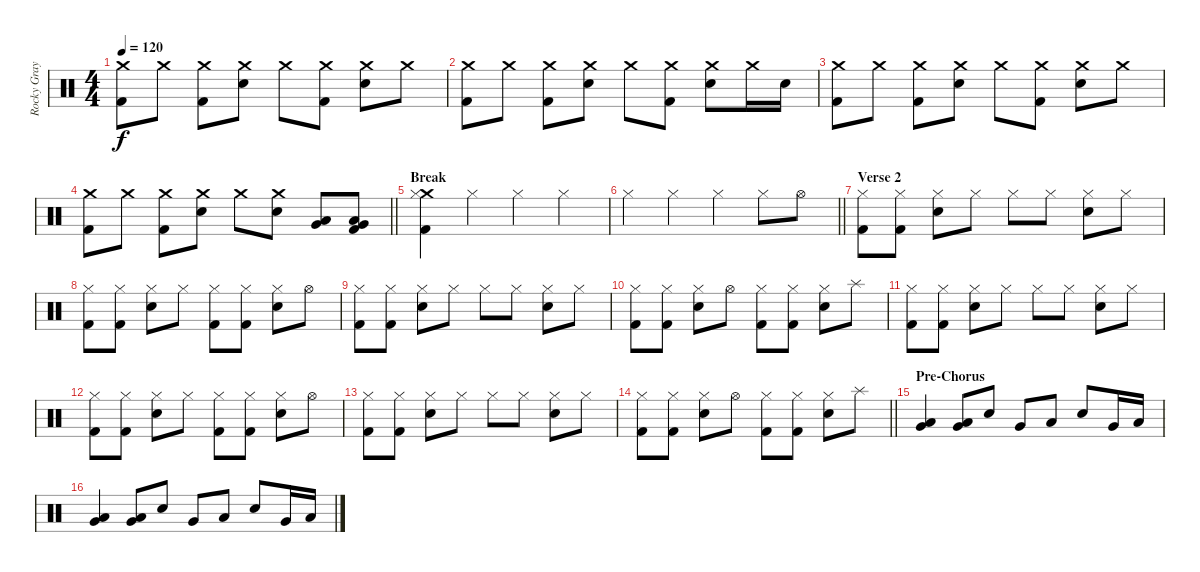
\track ("Rocky Gray" "Rocky Gray") {instrument percussion}
\staff {score}
\articulation defaults
\ts (4 4)
\tempo 120
\clef neutral
\ks c
("Crash medium (hit)" "Kick (hit) 2").8{dy f} "Crash medium (hit)".8 ("Crash medium (hit)" "Kick (hit) 2").8 ("Crash medium (hit)" "Electric Snare (hit)").8 "Crash medium (hit)".8 ("Crash medium (hit)" "Kick (hit) 2").8 ("Crash medium (hit)" "Electric Snare (hit)").8 "Crash medium (hit)".8 |
("Crash medium (hit)" "Kick (hit) 2").8 "Crash medium (hit)".8 ("Crash medium (hit)" "Kick (hit) 2").8 ("Crash medium (hit)" "Electric Snare (hit)").8 "Crash medium (hit)".8 ("Crash medium (hit)" "Kick (hit) 2").8 ("Crash medium (hit)" "Electric Snare (hit)").8 "Crash medium (hit)".16 "Electric Snare (hit)".16 |
("Crash medium (hit)" "Kick (hit) 2").8 "Crash medium (hit)".8 ("Crash medium (hit)" "Kick (hit) 2").8 ("Crash medium (hit)" "Electric Snare (hit)").8 "Crash medium (hit)".8 ("Crash medium (hit)" "Kick (hit) 2").8 ("Crash medium (hit)" "Electric Snare (hit)").8 "Crash medium (hit)".8 |
\barLineRight lightlight
("Crash medium (hit)" "Kick (hit) 2").8 "Crash medium (hit)".8 ("Crash medium (hit)" "Kick (hit) 2").8 ("Crash medium (hit)" "Electric Snare (hit)").8 "Crash medium (hit)".8 ("Crash medium (hit)" "Electric Snare (hit)").8 ("Very Low Tom (hit)" "Low Tom (hit)").8 ("Low Floor Tom (hit)" "Very Low Tom (hit)" "Kick (hit) 2").8 |
\section ("" "Break")
("Crash medium (hit)" "Hi-Hat (closed)" "Kick (hit) 2").4 "Hi-Hat (closed)".4 "Hi-Hat (closed)".4 "Hi-Hat (closed)".4 |
\barLineRight lightlight "Hi-Hat (closed)".4 "Hi-Hat (closed)".4 "Hi-Hat (closed)".4 "Hi-Hat (closed)".8 "Hi-Hat (open)".8
|
\section ("" "Verse 2")
("Hi-Hat (closed)" "Kick (hit) 2").8 ("Hi-Hat (closed)" "Kick (hit) 2").8 ("Hi-Hat (closed)" "Electric Snare (hit)").8 "Hi-Hat (closed)".8 "Hi-Hat (closed)".8 "Hi-Hat (closed)".8 ("Hi-Hat (closed)" "Electric Snare (hit)").8 "Hi-Hat (closed)".8 |
("Hi-Hat (closed)" "Kick (hit) 2").8 ("Hi-Hat (closed)" "Kick (hit) 2").8 ("Hi-Hat (closed)" "Electric Snare (hit)").8 "Hi-Hat (closed)".8 ("Hi-Hat (closed)" "Kick (hit) 2").8 ("Hi-Hat (closed)" "Kick (hit) 2").8 ("Hi-Hat (closed)" "Electric Snare (hit)").8 "Hi-Hat (open)".8 |
("Hi-Hat (closed)" "Kick (hit) 2").8 ("Hi-Hat (closed)" "Kick (hit) 2").8 ("Hi-Hat (closed)" "Electric Snare (hit)").8 "Hi-Hat (closed)".8 "Hi-Hat (closed)".8 "Hi-Hat (closed)".8 ("Hi-Hat (closed)" "Electric Snare (hit)").8 "Hi-Hat (closed)".8 |
("Hi-Hat (closed)" "Kick (hit) 2").8 ("Hi-Hat (closed)" "Kick (hit) 2").8 ("Hi-Hat (closed)" "Electric Snare (hit)").8 "Hi-Hat (open)".8 ("Hi-Hat (closed)" "Kick (hit) 2").8 ("Hi-Hat (closed)" "Kick (hit) 2").8 ("Hi-Hat (closed)" "Electric Snare (hit)").8 "Splash (hit)".8 |
("Hi-Hat (closed)" "Kick (hit) 2").8 ("Hi-Hat (closed)" "Kick (hit) 2").8 ("Hi-Hat (closed)" "Electric Snare (hit)").8 "Hi-Hat (closed)".8 "Hi-Hat (closed)".8 "Hi-Hat (closed)".8 ("Hi-Hat (closed)" "Electric Snare (hit)").8 "Hi-Hat (closed)".8 |
("Hi-Hat (closed)" "Kick (hit) 2").8 ("Hi-Hat (closed)" "Kick (hit) 2").8 ("Hi-Hat (closed)" "Electric Snare (hit)").8 "Hi-Hat (closed)".8 ("Hi-Hat (closed)" "Kick (hit) 2").8 ("Hi-Hat (closed)" "Kick (hit) 2").8 ("Hi-Hat (closed)" "Electric Snare (hit)").8 "Hi-Hat (open)".8 |
("Hi-Hat (closed)" "Kick (hit) 2").8 ("Hi-Hat (closed)" "Kick (hit) 2").8 ("Hi-Hat (closed)" "Electric Snare (hit)").8 "Hi-Hat (closed)".8 "Hi-Hat (closed)".8 "Hi-Hat (closed)".8 ("Hi-Hat (closed)" "Electric Snare (hit)").8 "Hi-Hat (closed)".8 |
\barLineRight lightlight
("Hi-Hat (closed)" "Kick (hit) 2").8 ("Hi-Hat (closed)" "Kick (hit) 2").8 ("Hi-Hat (closed)" "Electric Snare (hit)").8 "Hi-Hat (open)".8 ("Hi-Hat (closed)" "Kick (hit) 2").8 ("Hi-Hat (closed)" "Kick (hit) 2").8 ("Hi-Hat (closed)" "Electric Snare (hit)").8 "Splash (hit)".8 |
\section ("" "Pre-Chorus")
("Low Floor Tom (hit)" "Very Low Tom (hit)").4 ("Low Floor Tom (hit)" "Very Low Tom (hit)").8 "Electric Snare (hit)".8 "Very Low Tom (hit)".8 "Low Floor Tom (hit)".8 "Electric Snare (hit)".8 "Very Low Tom (hit)".16 "Low Floor Tom (hit)".16 |
("Low Floor Tom (hit)" "Very Low Tom (hit)").4 ("Low Floor Tom (hit)" "Very Low Tom (hit)").8 "Electric Snare (hit)".8 "Very Low Tom (hit)".8 "Low Floor Tom (hit)".8 "Electric Snare (hit)".8 "Very Low Tom (hit)".16 "Low Floor Tom (hit)".16
